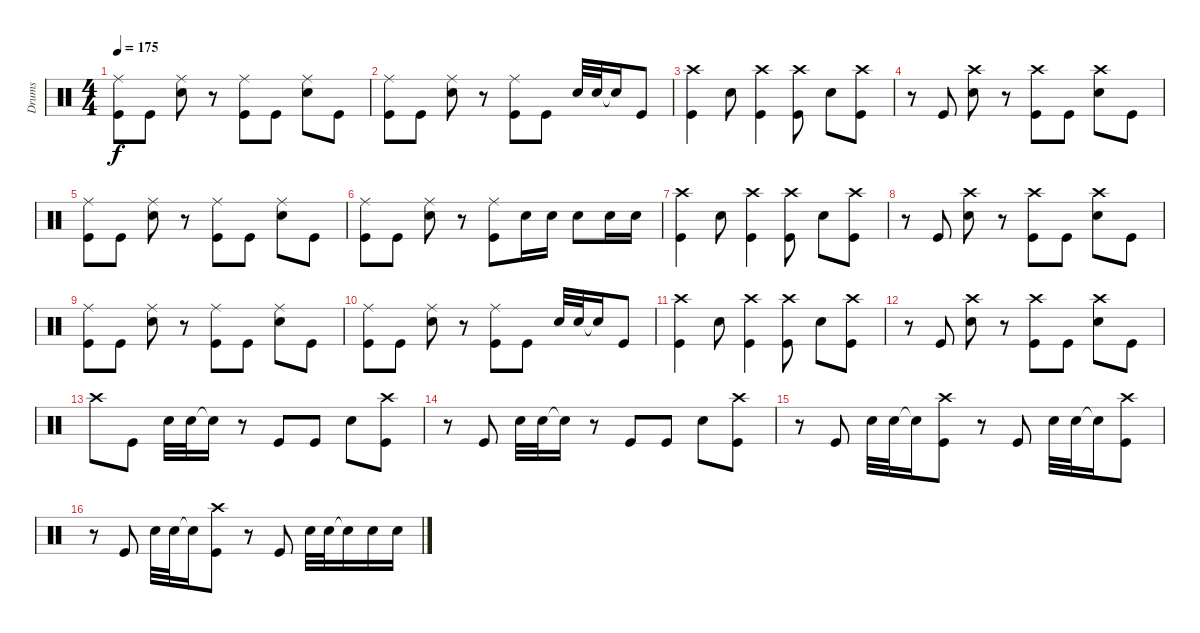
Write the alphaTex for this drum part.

\track ("Drums" "Drums") {instrument percussion}
\staff {score}
\articulation defaults
\ts (4 4)
\tempo 175
\clef neutral
\ks c
("Ride (middle)" "Kick (hit)").8{dy f} "Kick (hit)".8 ("Ride (middle)" "Snare (hit) 2").8 r.8 ("Ride (middle)" "Kick (hit)").8 "Kick (hit)".8 ("Ride (middle)" "Snare (hit) 2").8 "Kick (hit)".8 |
("Ride (middle)" "Kick (hit)").8 "Kick (hit)".8 ("Ride (middle)" "Snare (hit) 2").8 r.8 ("Ride (middle)" "Kick (hit)").8 "Kick (hit)".8 "Snare (hit) 2".32 "Snare (hit) 2".32 "Snare (hit)"{t}.16 "Kick (hit)".8 |
("Crash high (hit)" "Kick (hit)").4 "Snare (hit) 2".8 ("Crash high (hit)" "Kick (hit)").4 ("Crash high (hit)" "Kick (hit)").8 "Snare (hit) 2".8 ("Crash high (hit)" "Kick (hit)").8 |
r.8 "Kick (hit)".8 ("Crash high (hit)" "Snare (hit) 2").8 r.8 ("Crash high (hit)" "Kick (hit)").8 "Kick (hit)".8 ("Crash high (hit)" "Snare (hit) 2").8 "Kick (hit)".8 |
("Ride (middle)" "Kick (hit)").8 "Kick (hit)".8 ("Ride (middle)" "Snare (hit) 2").8 r.8 ("Ride (middle)" "Kick (hit)").8 "Kick (hit)".8 ("Ride (middle)" "Snare (hit) 2").8 "Kick (hit)".8 |
("Ride (middle)" "Kick (hit)").8 "Kick (hit)".8 ("Ride (middle)" "Snare (hit) 2").8 r.8 ("Ride (middle)" "Kick (hit)").8 "Snare (hit) 2".16 "Snare (hit) 2".16 "Snare (hit) 2".8 "Snare (hit) 2".16 "Snare (hit) 2".16 |
("Crash high (hit)" "Kick (hit)").4 "Snare (hit) 2".8 ("Crash high (hit)" "Kick (hit)").4 ("Crash high (hit)" "Kick (hit)").8 "Snare (hit) 2".8 ("Crash high (hit)" "Kick (hit)").8 |
r.8 "Kick (hit)".8 ("Crash high (hit)" "Snare (hit) 2").8 r.8 ("Crash high (hit)" "Kick (hit)").8 "Kick (hit)".8 ("Crash high (hit)" "Snare (hit) 2").8 "Kick (hit)".8 |
("Ride (middle)" "Kick (hit)").8 "Kick (hit)".8 ("Ride (middle)" "Snare (hit) 2").8 r.8 ("Ride (middle)" "Kick (hit)").8 "Kick (hit)".8 ("Ride (middle)" "Snare (hit) 2").8 "Kick (hit)".8 |
("Ride (middle)" "Kick (hit)").8 "Kick (hit)".8 ("Ride (middle)" "Snare (hit) 2").8 r.8 ("Ride (middle)" "Kick (hit)").8 "Kick (hit)".8 "Snare (hit) 2".32 "Snare (hit) 2".32 "Snare (hit)"{t}.16 "Kick (hit)".8 |
("Crash high (hit)" "Kick (hit)").4 "Snare (hit) 2".8 ("Crash high (hit)" "Kick (hit)").4 ("Crash high (hit)" "Kick (hit)").8 "Snare (hit) 2".8 ("Crash high (hit)" "Kick (hit)").8 |
r.8 "Kick (hit)".8 ("Crash high (hit)" "Snare (hit) 2").8 r.8 ("Crash high (hit)" "Kick (hit)").8 "Kick (hit)".8 ("Crash high (hit)" "Snare (hit) 2").8 "Kick (hit)".8 |
"Crash high (hit)".8 "Kick (hit)".8 "Snare (hit) 2".32 "Snare (hit) 2".32 "Snare (hit)"{t}.16 r.8 "Kick (hit)".8 "Kick (hit)".8 "Snare (hit) 2".8 ("Crash high (hit)" "Kick (hit)").8 |
r.8 "Kick (hit)".8 "Snare (hit) 2".32 "Snare (hit) 2".32 "Snare (hit)"{t}.16 r.8 "Kick (hit)".8 "Kick (hit)".8 "Snare (hit) 2".8 ("Crash high (hit)" "Kick (hit)").8 |
r.8 "Kick (hit)".8 "Snare (hit) 2".32 "Snare (hit) 2".32 "Snare (hit)"{t}.16 ("Crash high (hit)" "Kick (hit)").8 r.8 "Kick (hit)".8 "Snare (hit) 2".32 "Snare (hit) 2".32 "Snare (hit)"{t}.16 ("Crash high (hit)" "Kick (hit)").8 |
r.8 "Kick (hit)".8 "Snare (hit) 2".32 "Snare (hit) 2".32 "Snare (hit)"{t}.16 ("Crash high (hit)" "Kick (hit)").8 r.8 "Kick (hit)".8 "Snare (hit) 2".32 "Snare (hit) 2".32 "Snare (hit)"{t}.16 "Snare (hit) 2".16 "Snare (hit) 2".16
